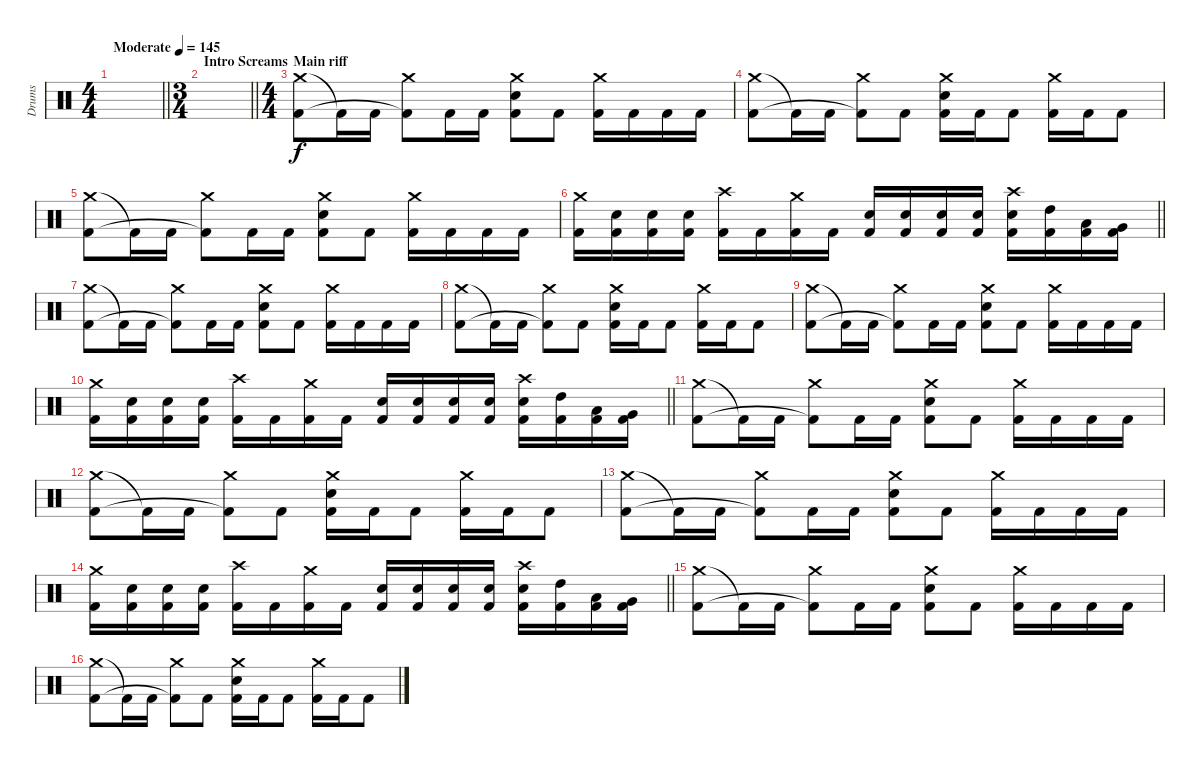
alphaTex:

\track ("Drums" "Drums") {mute instrument percussion}
\staff {score}
\articulation defaults
\ts (4 4)
\tempo (145 "Moderate")
\clef neutral
\barLineRight lightlight
\ks c
|
\ts (3 4)
\section ("" "Intro Screams")
\barLineRight lightlight
|
\ts (4 4)
\section ("" "Main riff")
("Crash medium (hit)" "Kick (hit) 2").8 "Kick (hit) 2"{t}.16 "Kick (hit) 2".16 ("Crash medium (hit)" "Kick (hit) 2"{t}).8 "Kick (hit) 2".16 "Kick (hit) 2".16 ("Crash medium (hit)" "Electric Snare (hit)" "Kick (hit) 2").8 "Kick (hit) 2".8 ("Crash medium (hit)" "Kick (hit) 2").16 "Kick (hit) 2".16 "Kick (hit) 2".16 "Kick (hit) 2".16 |
("Crash medium (hit)" "Kick (hit) 2").8 "Kick (hit) 2"{t}.16 "Kick (hit) 2".16 ("Crash medium (hit)" "Kick (hit) 2"{t}).8 "Kick (hit) 2".8 ("Crash medium (hit)" "Electric Snare (hit)" "Kick (hit) 2").16 "Kick (hit) 2".16 "Kick (hit) 2".8 ("Crash medium (hit)" "Kick (hit) 2").16 "Kick (hit) 2".16 "Kick (hit) 2".8 |
("Crash medium (hit)" "Kick (hit) 2").8 "Kick (hit) 2"{t}.16 "Kick (hit) 2".16 ("Crash medium (hit)" "Kick (hit) 2"{t}).8 "Kick (hit) 2".16 "Kick (hit) 2".16 ("Crash medium (hit)" "Electric Snare (hit)" "Kick (hit) 2").8 "Kick (hit) 2".8 ("Crash medium (hit)" "Kick (hit) 2").16 "Kick (hit) 2".16 "Kick (hit) 2".16 "Kick (hit) 2".16 |
\barLineRight lightlight
("Crash medium (hit)" "Kick (hit) 2").16 ("Electric Snare (hit)" "Kick (hit) 2").16 ("Electric Snare (hit)" "Kick (hit) 2").16 ("Electric Snare (hit)" "Kick (hit) 2").16 ("Crash high (hit)" "Kick (hit) 2").16 "Kick (hit) 2".16 ("Crash medium (hit)" "Kick (hit) 2").16 "Kick (hit) 2".16 ("Electric Snare (hit)" "Kick (hit) 2").16 ("Electric Snare (hit)" "Kick (hit) 2").16 ("Electric Snare (hit)" "Kick (hit) 2").16 ("Electric Snare (hit)" "Kick (hit) 2").16 ("Crash high (hit)" "Electric Snare (hit)" "Kick (hit) 2").16 ("High Tom (hit)" "Kick (hit) 2").16 ("Low Tom (hit)" "Kick (hit) 2").16 ("Very Low Tom (hit)" "Kick (hit) 2").16 |
("Crash medium (hit)" "Kick (hit) 2").8 "Kick (hit) 2"{t}.16 "Kick (hit) 2".16 ("Crash medium (hit)" "Kick (hit) 2"{t}).8 "Kick (hit) 2".16 "Kick (hit) 2".16 ("Crash medium (hit)" "Electric Snare (hit)" "Kick (hit) 2").8 "Kick (hit) 2".8 ("Crash medium (hit)" "Kick (hit) 2").16 "Kick (hit) 2".16 "Kick (hit) 2".16 "Kick (hit) 2".16 |
("Crash medium (hit)" "Kick (hit) 2").8 "Kick (hit) 2"{t}.16 "Kick (hit) 2".16 ("Crash medium (hit)" "Kick (hit) 2"{t}).8 "Kick (hit) 2".8 ("Crash medium (hit)" "Electric Snare (hit)" "Kick (hit) 2").16 "Kick (hit) 2".16 "Kick (hit) 2".8 ("Crash medium (hit)" "Kick (hit) 2").16 "Kick (hit) 2".16 "Kick (hit) 2".8 |
("Crash medium (hit)" "Kick (hit) 2").8 "Kick (hit) 2"{t}.16 "Kick (hit) 2".16 ("Crash medium (hit)" "Kick (hit) 2"{t}).8 "Kick (hit) 2".16 "Kick (hit) 2".16 ("Crash medium (hit)" "Electric Snare (hit)" "Kick (hit) 2").8 "Kick (hit) 2".8 ("Crash medium (hit)" "Kick (hit) 2").16 "Kick (hit) 2".16 "Kick (hit) 2".16 "Kick (hit) 2".16 |
\barLineRight lightlight
("Crash medium (hit)" "Kick (hit) 2").16 ("Electric Snare (hit)" "Kick (hit) 2").16 ("Electric Snare (hit)" "Kick (hit) 2").16 ("Electric Snare (hit)" "Kick (hit) 2").16 ("Crash high (hit)" "Kick (hit) 2").16 "Kick (hit) 2".16 ("Crash medium (hit)" "Kick (hit) 2").16 "Kick (hit) 2".16 ("Electric Snare (hit)" "Kick (hit) 2").16 ("Electric Snare (hit)" "Kick (hit) 2").16 ("Electric Snare (hit)" "Kick (hit) 2").16 ("Electric Snare (hit)" "Kick (hit) 2").16 ("Crash high (hit)" "Electric Snare (hit)" "Kick (hit) 2").16 ("High Tom (hit)" "Kick (hit) 2").16 ("Low Tom (hit)" "Kick (hit) 2").16 ("Very Low Tom (hit)" "Kick (hit) 2").16 |
("Crash medium (hit)" "Kick (hit) 2").8 "Kick (hit) 2"{t}.16 "Kick (hit) 2".16 ("Crash medium (hit)" "Kick (hit) 2"{t}).8 "Kick (hit) 2".16 "Kick (hit) 2".16 ("Crash medium (hit)" "Electric Snare (hit)" "Kick (hit) 2").8 "Kick (hit) 2".8 ("Crash medium (hit)" "Kick (hit) 2").16 "Kick (hit) 2".16 "Kick (hit) 2".16 "Kick (hit) 2".16 |
("Crash medium (hit)" "Kick (hit) 2").8 "Kick (hit) 2"{t}.16 "Kick (hit) 2".16 ("Crash medium (hit)" "Kick (hit) 2"{t}).8 "Kick (hit) 2".8 ("Crash medium (hit)" "Electric Snare (hit)" "Kick (hit) 2").16 "Kick (hit) 2".16 "Kick (hit) 2".8 ("Crash medium (hit)" "Kick (hit) 2").16 "Kick (hit) 2".16 "Kick (hit) 2".8 |
("Crash medium (hit)" "Kick (hit) 2").8 "Kick (hit) 2"{t}.16 "Kick (hit) 2".16 ("Crash medium (hit)" "Kick (hit) 2"{t}).8 "Kick (hit) 2".16 "Kick (hit) 2".16 ("Crash medium (hit)" "Electric Snare (hit)" "Kick (hit) 2").8 "Kick (hit) 2".8 ("Crash medium (hit)" "Kick (hit) 2").16 "Kick (hit) 2".16 "Kick (hit) 2".16 "Kick (hit) 2".16 |
\barLineRight lightlight
("Crash medium (hit)" "Kick (hit) 2").16 ("Electric Snare (hit)" "Kick (hit) 2").16 ("Electric Snare (hit)" "Kick (hit) 2").16 ("Electric Snare (hit)" "Kick (hit) 2").16 ("Crash high (hit)" "Kick (hit) 2").16 "Kick (hit) 2".16 ("Crash medium (hit)" "Kick (hit) 2").16 "Kick (hit) 2".16 ("Electric Snare (hit)" "Kick (hit) 2").16 ("Electric Snare (hit)" "Kick (hit) 2").16 ("Electric Snare (hit)" "Kick (hit) 2").16 ("Electric Snare (hit)" "Kick (hit) 2").16 ("Crash high (hit)" "Electric Snare (hit)" "Kick (hit) 2").16 ("High Tom (hit)" "Kick (hit) 2").16 ("Low Tom (hit)" "Kick (hit) 2").16 ("Very Low Tom (hit)" "Kick (hit) 2").16 |
("Crash medium (hit)" "Kick (hit) 2").8 "Kick (hit) 2"{t}.16 "Kick (hit) 2".16 ("Crash medium (hit)" "Kick (hit) 2"{t}).8 "Kick (hit) 2".16 "Kick (hit) 2".16 ("Crash medium (hit)" "Electric Snare (hit)" "Kick (hit) 2").8 "Kick (hit) 2".8 ("Crash medium (hit)" "Kick (hit) 2").16 "Kick (hit) 2".16 "Kick (hit) 2".16 "Kick (hit) 2".16 |
("Crash medium (hit)" "Kick (hit) 2").8 "Kick (hit) 2"{t}.16 "Kick (hit) 2".16 ("Crash medium (hit)" "Kick (hit) 2"{t}).8 "Kick (hit) 2".8 ("Crash medium (hit)" "Electric Snare (hit)" "Kick (hit) 2").16 "Kick (hit) 2".16 "Kick (hit) 2".8 ("Crash medium (hit)" "Kick (hit) 2").16 "Kick (hit) 2".16 "Kick (hit) 2".8
